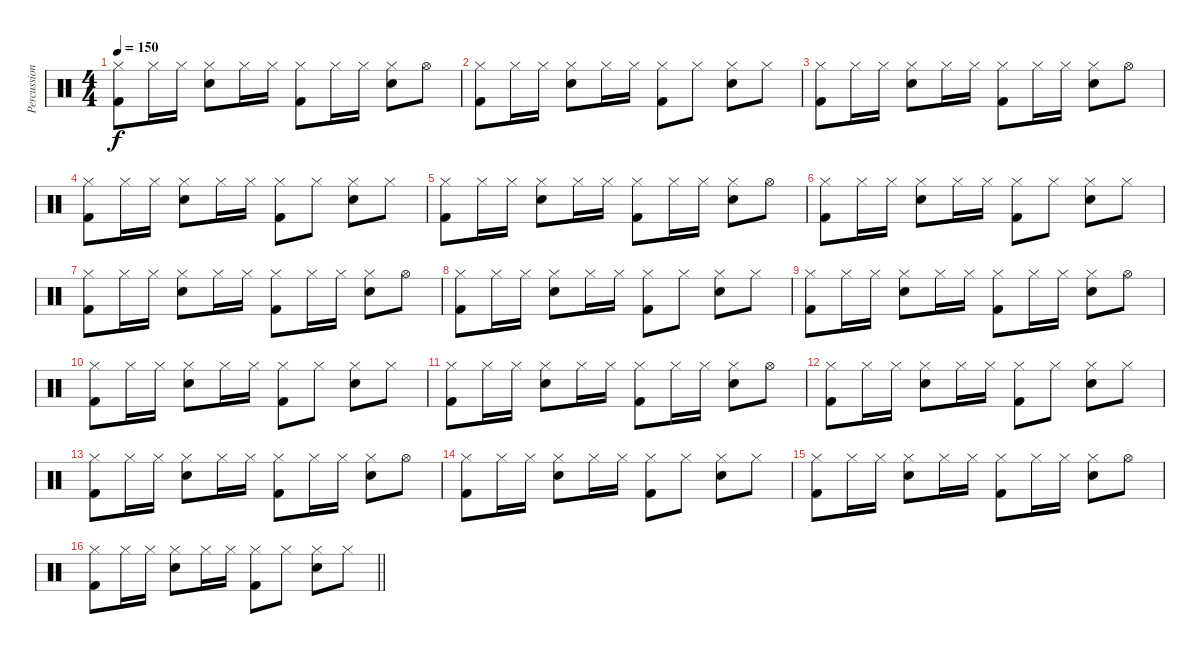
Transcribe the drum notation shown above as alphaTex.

\track ("Percussion" "Percussion") {instrument percussion}
\staff {score}
\articulation defaults
\ts (4 4)
\tempo 150
\clef neutral
\ks c
("Hi-Hat (closed)" "Kick (hit) 2").8{dy f} "Hi-Hat (closed)".16 "Hi-Hat (closed)".16 ("Hi-Hat (closed)" "Snare (hit) 2").8 "Hi-Hat (closed)".16 "Hi-Hat (closed)".16 ("Hi-Hat (closed)" "Kick (hit) 2").8 "Hi-Hat (closed)".16 "Hi-Hat (closed)".16 ("Hi-Hat (closed)" "Snare (hit) 2").8 "Hi-Hat (open)".8 |
("Hi-Hat (closed)" "Kick (hit) 2").8 "Hi-Hat (closed)".16 "Hi-Hat (closed)".16 ("Hi-Hat (closed)" "Snare (hit) 2").8 "Hi-Hat (closed)".16 "Hi-Hat (closed)".16 ("Hi-Hat (closed)" "Kick (hit) 2").8 "Hi-Hat (closed)".8 ("Hi-Hat (closed)" "Snare (hit) 2").8 "Hi-Hat (closed)".8 |
("Hi-Hat (closed)" "Kick (hit) 2").8 "Hi-Hat (closed)".16 "Hi-Hat (closed)".16 ("Hi-Hat (closed)" "Snare (hit) 2").8 "Hi-Hat (closed)".16 "Hi-Hat (closed)".16 ("Hi-Hat (closed)" "Kick (hit) 2").8 "Hi-Hat (closed)".16 "Hi-Hat (closed)".16 ("Hi-Hat (closed)" "Snare (hit) 2").8 "Hi-Hat (open)".8 |
("Hi-Hat (closed)" "Kick (hit) 2").8 "Hi-Hat (closed)".16 "Hi-Hat (closed)".16 ("Hi-Hat (closed)" "Snare (hit) 2").8 "Hi-Hat (closed)".16 "Hi-Hat (closed)".16 ("Hi-Hat (closed)" "Kick (hit) 2").8 "Hi-Hat (closed)".8 ("Hi-Hat (closed)" "Snare (hit) 2").8 "Hi-Hat (closed)".8 |
("Hi-Hat (closed)" "Kick (hit) 2").8 "Hi-Hat (closed)".16 "Hi-Hat (closed)".16 ("Hi-Hat (closed)" "Snare (hit) 2").8 "Hi-Hat (closed)".16 "Hi-Hat (closed)".16 ("Hi-Hat (closed)" "Kick (hit) 2").8 "Hi-Hat (closed)".16 "Hi-Hat (closed)".16 ("Hi-Hat (closed)" "Snare (hit) 2").8 "Hi-Hat (open)".8 |
("Hi-Hat (closed)" "Kick (hit) 2").8 "Hi-Hat (closed)".16 "Hi-Hat (closed)".16 ("Hi-Hat (closed)" "Snare (hit) 2").8 "Hi-Hat (closed)".16 "Hi-Hat (closed)".16 ("Hi-Hat (closed)" "Kick (hit) 2").8 "Hi-Hat (closed)".8 ("Hi-Hat (closed)" "Snare (hit) 2").8 "Hi-Hat (closed)".8 |
("Hi-Hat (closed)" "Kick (hit) 2").8 "Hi-Hat (closed)".16 "Hi-Hat (closed)".16 ("Hi-Hat (closed)" "Snare (hit) 2").8 "Hi-Hat (closed)".16 "Hi-Hat (closed)".16 ("Hi-Hat (closed)" "Kick (hit) 2").8 "Hi-Hat (closed)".16 "Hi-Hat (closed)".16 ("Hi-Hat (closed)" "Snare (hit) 2").8 "Hi-Hat (open)".8 |
("Hi-Hat (closed)" "Kick (hit) 2").8 "Hi-Hat (closed)".16 "Hi-Hat (closed)".16 ("Hi-Hat (closed)" "Snare (hit) 2").8 "Hi-Hat (closed)".16 "Hi-Hat (closed)".16 ("Hi-Hat (closed)" "Kick (hit) 2").8 "Hi-Hat (closed)".8 ("Hi-Hat (closed)" "Snare (hit) 2").8 "Hi-Hat (closed)".8 |
("Hi-Hat (closed)" "Kick (hit) 2").8 "Hi-Hat (closed)".16 "Hi-Hat (closed)".16 ("Hi-Hat (closed)" "Snare (hit) 2").8 "Hi-Hat (closed)".16 "Hi-Hat (closed)".16 ("Hi-Hat (closed)" "Kick (hit) 2").8 "Hi-Hat (closed)".16 "Hi-Hat (closed)".16 ("Hi-Hat (closed)" "Snare (hit) 2").8 "Hi-Hat (open)".8 |
("Hi-Hat (closed)" "Kick (hit) 2").8 "Hi-Hat (closed)".16 "Hi-Hat (closed)".16 ("Hi-Hat (closed)" "Snare (hit) 2").8 "Hi-Hat (closed)".16 "Hi-Hat (closed)".16 ("Hi-Hat (closed)" "Kick (hit) 2").8 "Hi-Hat (closed)".8 ("Hi-Hat (closed)" "Snare (hit) 2").8 "Hi-Hat (closed)".8 |
("Hi-Hat (closed)" "Kick (hit) 2").8 "Hi-Hat (closed)".16 "Hi-Hat (closed)".16 ("Hi-Hat (closed)" "Snare (hit) 2").8 "Hi-Hat (closed)".16 "Hi-Hat (closed)".16 ("Hi-Hat (closed)" "Kick (hit) 2").8 "Hi-Hat (closed)".16 "Hi-Hat (closed)".16 ("Hi-Hat (closed)" "Snare (hit) 2").8 "Hi-Hat (open)".8 |
("Hi-Hat (closed)" "Kick (hit) 2").8 "Hi-Hat (closed)".16 "Hi-Hat (closed)".16 ("Hi-Hat (closed)" "Snare (hit) 2").8 "Hi-Hat (closed)".16 "Hi-Hat (closed)".16 ("Hi-Hat (closed)" "Kick (hit) 2").8 "Hi-Hat (closed)".8 ("Hi-Hat (closed)" "Snare (hit) 2").8 "Hi-Hat (closed)".8 |
("Hi-Hat (closed)" "Kick (hit) 2").8 "Hi-Hat (closed)".16 "Hi-Hat (closed)".16 ("Hi-Hat (closed)" "Snare (hit) 2").8 "Hi-Hat (closed)".16 "Hi-Hat (closed)".16 ("Hi-Hat (closed)" "Kick (hit) 2").8 "Hi-Hat (closed)".16 "Hi-Hat (closed)".16 ("Hi-Hat (closed)" "Snare (hit) 2").8 "Hi-Hat (open)".8 |
("Hi-Hat (closed)" "Kick (hit) 2").8 "Hi-Hat (closed)".16 "Hi-Hat (closed)".16 ("Hi-Hat (closed)" "Snare (hit) 2").8 "Hi-Hat (closed)".16 "Hi-Hat (closed)".16 ("Hi-Hat (closed)" "Kick (hit) 2").8 "Hi-Hat (closed)".8 ("Hi-Hat (closed)" "Snare (hit) 2").8 "Hi-Hat (closed)".8 |
("Hi-Hat (closed)" "Kick (hit) 2").8 "Hi-Hat (closed)".16 "Hi-Hat (closed)".16 ("Hi-Hat (closed)" "Snare (hit) 2").8 "Hi-Hat (closed)".16 "Hi-Hat (closed)".16 ("Hi-Hat (closed)" "Kick (hit) 2").8 "Hi-Hat (closed)".16 "Hi-Hat (closed)".16 ("Hi-Hat (closed)" "Snare (hit) 2").8 "Hi-Hat (open)".8 |
\barLineRight lightlight
("Hi-Hat (closed)" "Kick (hit) 2").8 "Hi-Hat (closed)".16 "Hi-Hat (closed)".16 ("Hi-Hat (closed)" "Snare (hit) 2").8 "Hi-Hat (closed)".16 "Hi-Hat (closed)".16 ("Hi-Hat (closed)" "Kick (hit) 2").8 "Hi-Hat (closed)".8 ("Hi-Hat (closed)" "Snare (hit) 2").8 "Hi-Hat (closed)".8
